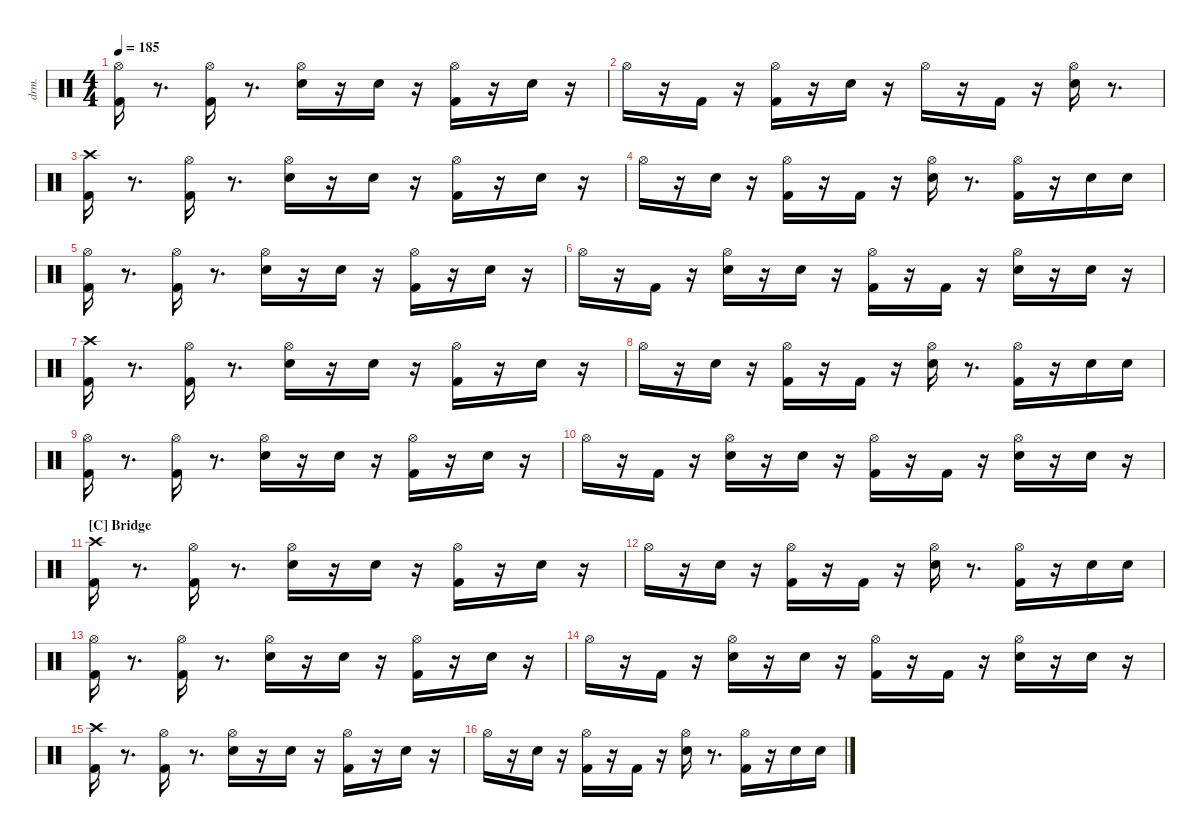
\defaultSystemsLayout 4
\hideDynamics
\bracketExtendMode nobrackets
\otherSystemsTrackNameOrientation horizontal
\track ("drums" "drm.") {instrument percussion}
\staff {score}
\articulation defaults
\ts (4 4)
\tempo 185
\clef neutral
\ks aminor
("Kick (hit) 2" "Hi-Hat (open)"{acc #}).16{dy ff beam Down} r.8{d beam Down} ("Kick (hit) 2" "Hi-Hat (open)"{acc #}).16{beam Down} r.8{d beam Down} ("Snare (hit) 2" "Hi-Hat (open)"{acc #}).16{beam Down} r.16{beam Down} "Snare (hit) 2".16{dy p beam Down} r.16{beam Down} ("Kick (hit) 2" "Hi-Hat (open)"{acc #}).16{dy ff beam Down} r.16{beam Down} "Snare (hit) 2".16{dy f beam Down} r.16{beam Down} |
"Hi-Hat (open)"{acc #}.16{dy ff beam Down} r.16{beam Down} "Kick (hit) 2".16{dy f beam Up} r.16{beam Up} ("Kick (hit) 2" "Hi-Hat (open)"{acc #}).16{dy fff beam Down} r.16{beam Down} "Snare (hit) 2".16{dy ff beam Down} r.16{beam Down} "Hi-Hat (open)"{acc #}.16{beam Down} r.16{beam Down} "Kick (hit) 2".16{beam Up} r.16{beam Up} ("Snare (hit) 2" "Hi-Hat (open)"{acc #}).16{dy fff beam Down} r.8{d beam Down} |
("Kick (hit) 2" "Crash high (hit)"{acc #}).16{dy ff beam Down} r.8{d beam Down} ("Kick (hit) 2" "Hi-Hat (open)"{acc #}).16{beam Down} r.8{d beam Down} ("Snare (hit) 2" "Hi-Hat (open)"{acc #}).16{beam Down} r.16{beam Down} "Snare (hit) 2".16{dy p beam Down} r.16{beam Down} ("Kick (hit) 2" "Hi-Hat (open)"{acc #}).16{dy mf beam Down} r.16{beam Down} "Snare (hit) 2".16{dy ff beam Down} r.16{beam Down} |
"Hi-Hat (open)"{acc #}.16{dy f beam Down} r.16{beam Down} "Snare (hit) 2".16{dy ff beam Down} r.16{beam Down} ("Kick (hit) 2" "Hi-Hat (open)"{acc #}).16{dy f beam Down} r.16{beam Down} "Kick (hit) 2".16{dy ff beam Up} r.16{beam Up} ("Snare (hit) 2" "Hi-Hat (open)"{acc #}).16{beam Down} r.8{d beam Down} ("Kick (hit) 2" "Hi-Hat (open)"{acc #}).16{beam Down} r.16{beam Down} "Snare (hit) 2".16{dy mf beam Down} "Snare (hit) 2".16{dy pp beam Down} |
("Kick (hit) 2" "Hi-Hat (open)"{acc #}).16{dy fff beam Down} r.8{d beam Down} ("Kick (hit) 2" "Hi-Hat (open)"{acc #}).16{dy mf beam Down} r.8{d beam Down} ("Snare (hit) 2" "Hi-Hat (open)"{acc #}).16{dy ff beam Down} r.16{beam Down} "Snare (hit) 2".16{dy p beam Down} r.16{beam Down} ("Kick (hit) 2" "Hi-Hat (open)"{acc #}).16{dy ff beam Down} r.16{beam Down} "Snare (hit) 2".16{dy f beam Down} r.16{beam Down} |
"Hi-Hat (open)"{acc #}.16{dy ff beam Down} r.16{beam Down} "Kick (hit) 2".16{beam Up} r.16{beam Up} ("Snare (hit) 2" "Hi-Hat (open)"{acc #}).16{beam Down} r.16{beam Down} "Snare (hit) 2".16{dy p beam Down} r.16{beam Down} ("Kick (hit) 2" "Hi-Hat (open)"{acc #}).16{dy mf beam Down} r.16{beam Down} "Kick (hit) 2".16{dy ff beam Up} r.16{beam Up} ("Snare (hit) 2" "Hi-Hat (open)"{acc #}).16{beam Down} r.16{beam Down} "Snare (hit) 2".16{beam Down} r.16{beam Down} |
("Kick (hit) 2" "Crash high (hit)"{acc #}).16{beam Down} r.8{d beam Down} ("Kick (hit) 2" "Hi-Hat (open)"{acc #}).16{beam Down} r.8{d beam Down} ("Snare (hit) 2" "Hi-Hat (open)"{acc #}).16{beam Down} r.16{beam Down} "Snare (hit) 2".16{dy p beam Down} r.16{beam Down} ("Kick (hit) 2" "Hi-Hat (open)"{acc #}).16{dy ff beam Down} r.16{beam Down} "Snare (hit) 2".16{beam Down} r.16{beam Down} |
"Hi-Hat (open)"{acc #}.16{dy f beam Down} r.16{beam Down} "Snare (hit) 2".16{dy ff beam Down} r.16{beam Down} ("Kick (hit) 2" "Hi-Hat (open)"{acc #}).16{dy mf beam Down} r.16{beam Down} "Kick (hit) 2".16{dy ff beam Up} r.16{beam Up} ("Snare (hit) 2" "Hi-Hat (open)"{acc #}).16{beam Down} r.8{d beam Down} ("Kick (hit) 2" "Hi-Hat (open)"{acc #}).16{beam Down} r.16{beam Down} "Snare (hit) 2".16{dy mf beam Down} "Snare (hit) 2".16{dy pp beam Down} |
("Kick (hit) 2" "Hi-Hat (open)"{acc #}).16{dy ff beam Down} r.8{d beam Down} ("Kick (hit) 2" "Hi-Hat (open)"{acc #}).16{beam Down} r.8{d beam Down} ("Snare (hit) 2" "Hi-Hat (open)"{acc #}).16{beam Down} r.16{beam Down} "Snare (hit) 2".16{dy p beam Down} r.16{beam Down} ("Kick (hit) 2" "Hi-Hat (open)"{acc #}).16{dy ff beam Down} r.16{beam Down} "Snare (hit) 2".16{dy f beam Down} r.16{beam Down} |
"Hi-Hat (open)"{acc #}.16{dy ff beam Down} r.16{beam Down} "Kick (hit) 2".16{beam Up} r.16{beam Up} ("Snare (hit) 2" "Hi-Hat (open)"{acc #}).16{beam Down} r.16{beam Down} "Snare (hit) 2".16{dy p beam Down} r.16{beam Down} ("Kick (hit) 2" "Hi-Hat (open)"{acc #}).16{dy mf beam Down} r.16{beam Down} "Kick (hit) 2".16{dy ff beam Up} r.16{beam Up} ("Snare (hit) 2" "Hi-Hat (open)"{acc #}).16{dy mf beam Down} r.16{beam Down} "Snare (hit) 2".16{dy ff beam Down} r.16{beam Down} |
\section ("C" "Bridge")
("Kick (hit) 2" "Crash high (hit)"{acc #}).16{dy fff beam Down} r.8{d beam Down} ("Kick (hit) 2" "Hi-Hat (open)"{acc #}).16{dy ff beam Down} r.8{d beam Down} ("Snare (hit) 2" "Hi-Hat (open)"{acc #}).16{beam Down} r.16{beam Down} "Snare (hit) 2".16{dy p beam Down} r.16{beam Down} ("Kick (hit) 2" "Hi-Hat (open)"{acc #}).16{dy ff beam Down} r.16{beam Down} "Snare (hit) 2".16{beam Down} r.16{beam Down} |
"Hi-Hat (open)"{acc #}.16{dy f beam Down} r.16{beam Down} "Snare (hit) 2".16{dy ff beam Down} r.16{beam Down} ("Kick (hit) 2" "Hi-Hat (open)"{acc #}).16{dy f beam Down} r.16{beam Down} "Kick (hit) 2".16{dy ff beam Up} r.16{beam Up} ("Snare (hit) 2" "Hi-Hat (open)"{acc #}).16{beam Down} r.8{d beam Down} ("Kick (hit) 2" "Hi-Hat (open)"{acc #}).16{beam Down} r.16{beam Down} "Snare (hit) 2".16{dy mf beam Down} "Snare (hit) 2".16{dy pp beam Down} |
("Kick (hit) 2" "Hi-Hat (open)"{acc #}).16{dy ff beam Down} r.8{d beam Down} ("Kick (hit) 2" "Hi-Hat (open)"{acc #}).16{beam Down} r.8{d beam Down} ("Snare (hit) 2" "Hi-Hat (open)"{acc #}).16{beam Down} r.16{beam Down} "Snare (hit) 2".16{dy p beam Down} r.16{beam Down} ("Kick (hit) 2" "Hi-Hat (open)"{acc #}).16{dy ff beam Down} r.16{beam Down} "Snare (hit) 2".16{dy f beam Down} r.16{beam Down} |
"Hi-Hat (open)"{acc #}.16{dy ff beam Down} r.16{beam Down} "Kick (hit) 2".16{beam Up} r.16{beam Up} ("Snare (hit) 2" "Hi-Hat (open)"{acc #}).16{beam Down} r.16{beam Down} "Snare (hit) 2".16{dy p beam Down} r.16{beam Down} ("Kick (hit) 2" "Hi-Hat (open)"{acc #}).16{dy mf beam Down} r.16{beam Down} "Kick (hit) 2".16{dy ff beam Up} r.16{beam Up} ("Snare (hit) 2" "Hi-Hat (open)"{acc #}).16{beam Down} r.16{beam Down} "Snare (hit) 2".16{beam Down} r.16{beam Down} |
("Kick (hit) 2" "Crash high (hit)"{acc #}).16{beam Down} r.8{d beam Down} ("Kick (hit) 2" "Hi-Hat (open)"{acc #}).16{beam Down} r.8{d beam Down} ("Snare (hit) 2" "Hi-Hat (open)"{acc #}).16{beam Down} r.16{beam Down} "Snare (hit) 2".16{dy p beam Down} r.16{beam Down} ("Kick (hit) 2" "Hi-Hat (open)"{acc #}).16{dy ff beam Down} r.16{beam Down} "Snare (hit) 2".16{beam Down} r.16{beam Down} |
"Hi-Hat (open)"{acc #}.16{dy f beam Down} r.16{beam Down} "Snare (hit) 2".16{dy ff beam Down} r.16{beam Down} ("Kick (hit) 2" "Hi-Hat (open)"{acc #}).16{dy f beam Down} r.16{beam Down} "Kick (hit) 2".16{dy ff beam Up} r.16{beam Up} ("Snare (hit) 2" "Hi-Hat (open)"{acc #}).16{beam Down} r.8{d beam Down} ("Kick (hit) 2" "Hi-Hat (open)"{acc #}).16{dy mf beam Down} r.16{beam Down} "Snare (hit) 2".16{beam Down} "Snare (hit) 2".16{dy pp beam Down}
